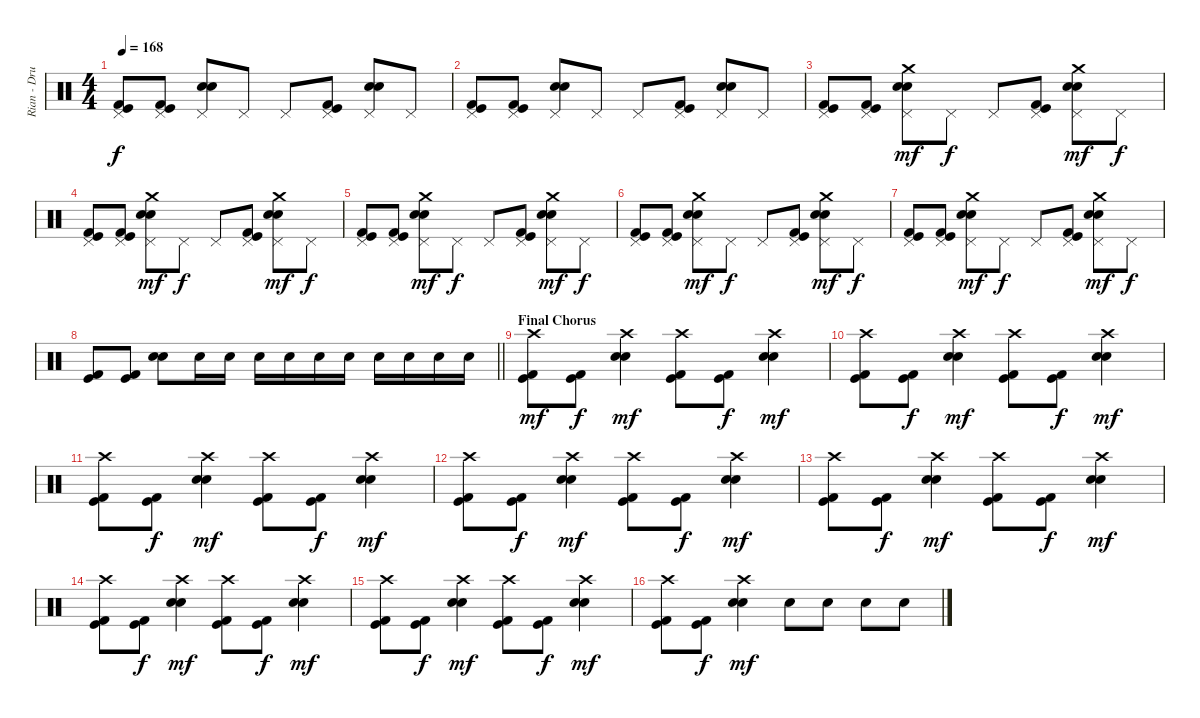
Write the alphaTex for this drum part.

\track ("Rian - Drums" "Rian - Dru") {instrument percussion}
\staff {score}
\articulation defaults
\ts (4 4)
\tempo 168
\clef neutral
\ks c
("Kick (hit) 2" "Kick (hit)" "Pedal Hi-Hat (hit)").8{dy f} ("Kick (hit) 2" "Kick (hit)" "Pedal Hi-Hat (hit)").8 ("Electric Snare (hit)" "Electric Snare (hit)" "Pedal Hi-Hat (hit)").8 "Pedal Hi-Hat (hit)".8 "Pedal Hi-Hat (hit)".8 ("Kick (hit) 2" "Kick (hit)" "Pedal Hi-Hat (hit)").8 ("Electric Snare (hit)" "Electric Snare (hit)" "Pedal Hi-Hat (hit)").8 "Pedal Hi-Hat (hit)".8 |
("Kick (hit) 2" "Kick (hit)" "Pedal Hi-Hat (hit)").8 ("Kick (hit) 2" "Kick (hit)" "Pedal Hi-Hat (hit)").8 ("Electric Snare (hit)" "Electric Snare (hit)" "Pedal Hi-Hat (hit)").8 "Pedal Hi-Hat (hit)".8 "Pedal Hi-Hat (hit)".8 ("Kick (hit) 2" "Kick (hit)" "Pedal Hi-Hat (hit)").8 ("Electric Snare (hit)" "Electric Snare (hit)" "Pedal Hi-Hat (hit)").8 "Pedal Hi-Hat (hit)".8 |
("Kick (hit) 2" "Kick (hit)" "Pedal Hi-Hat (hit)").8 ("Kick (hit) 2" "Kick (hit)" "Pedal Hi-Hat (hit)").8 ("Electric Snare (hit)" "Electric Snare (hit)" "Pedal Hi-Hat (hit)" "Crash medium (hit)").8{dy mf} "Pedal Hi-Hat (hit)".8{dy f} "Pedal Hi-Hat (hit)".8 ("Kick (hit) 2" "Kick (hit)" "Pedal Hi-Hat (hit)").8 ("Electric Snare (hit)" "Electric Snare (hit)" "Pedal Hi-Hat (hit)" "Crash medium (hit)").8{dy mf} "Pedal Hi-Hat (hit)".8{dy f} |
("Kick (hit) 2" "Kick (hit)" "Pedal Hi-Hat (hit)").8 ("Kick (hit) 2" "Kick (hit)" "Pedal Hi-Hat (hit)").8 ("Electric Snare (hit)" "Electric Snare (hit)" "Pedal Hi-Hat (hit)" "Crash medium (hit)").8{dy mf} "Pedal Hi-Hat (hit)".8{dy f} "Pedal Hi-Hat (hit)".8 ("Kick (hit) 2" "Kick (hit)" "Pedal Hi-Hat (hit)").8 ("Electric Snare (hit)" "Electric Snare (hit)" "Pedal Hi-Hat (hit)" "Crash medium (hit)").8{dy mf} "Pedal Hi-Hat (hit)".8{dy f} |
("Kick (hit) 2" "Kick (hit)" "Pedal Hi-Hat (hit)").8 ("Kick (hit) 2" "Kick (hit)" "Pedal Hi-Hat (hit)").8 ("Electric Snare (hit)" "Electric Snare (hit)" "Pedal Hi-Hat (hit)" "Crash medium (hit)").8{dy mf} "Pedal Hi-Hat (hit)".8{dy f} "Pedal Hi-Hat (hit)".8 ("Kick (hit) 2" "Kick (hit)" "Pedal Hi-Hat (hit)").8 ("Electric Snare (hit)" "Electric Snare (hit)" "Pedal Hi-Hat (hit)" "Crash medium (hit)").8{dy mf} "Pedal Hi-Hat (hit)".8{dy f} |
("Kick (hit) 2" "Kick (hit)" "Pedal Hi-Hat (hit)").8 ("Kick (hit) 2" "Kick (hit)" "Pedal Hi-Hat (hit)").8 ("Electric Snare (hit)" "Electric Snare (hit)" "Pedal Hi-Hat (hit)" "Crash medium (hit)").8{dy mf} "Pedal Hi-Hat (hit)".8{dy f} "Pedal Hi-Hat (hit)".8 ("Kick (hit) 2" "Kick (hit)" "Pedal Hi-Hat (hit)").8 ("Electric Snare (hit)" "Electric Snare (hit)" "Pedal Hi-Hat (hit)" "Crash medium (hit)").8{dy mf} "Pedal Hi-Hat (hit)".8{dy f} |
("Kick (hit) 2" "Kick (hit)" "Pedal Hi-Hat (hit)").8 ("Kick (hit) 2" "Kick (hit)" "Pedal Hi-Hat (hit)").8 ("Electric Snare (hit)" "Electric Snare (hit)" "Pedal Hi-Hat (hit)" "Crash medium (hit)").8{dy mf} "Pedal Hi-Hat (hit)".8{dy f} "Pedal Hi-Hat (hit)".8 ("Kick (hit) 2" "Kick (hit)" "Pedal Hi-Hat (hit)").8 ("Electric Snare (hit)" "Electric Snare (hit)" "Pedal Hi-Hat (hit)" "Crash medium (hit)").8{dy mf} "Pedal Hi-Hat (hit)".8{dy f} |
\barLineRight lightlight
("Kick (hit) 2" "Kick (hit)").8 ("Kick (hit) 2" "Kick (hit)").8 ("Electric Snare (hit)" "Electric Snare (hit)").8 "Electric Snare (hit)".16 "Electric Snare (hit)".16 "Electric Snare (hit)".16 "Electric Snare (hit)".16 "Electric Snare (hit)".16 "Electric Snare (hit)".16 "Electric Snare (hit)".16 "Electric Snare (hit)".16 "Electric Snare (hit)".16 "Electric Snare (hit)".16 |
\section ("" "Final Chorus")
("Kick (hit) 2" "Kick (hit)" "Crash high (hit)").8{dy mf} ("Kick (hit) 2" "Kick (hit)").8{dy f} ("Electric Snare (hit)" "Electric Snare (hit)" "Crash high (hit)").4{dy mf} ("Kick (hit) 2" "Kick (hit)" "Crash high (hit)").8 ("Kick (hit) 2" "Kick (hit)").8{dy f} ("Electric Snare (hit)" "Electric Snare (hit)" "Crash high (hit)").4{dy mf} |
("Kick (hit) 2" "Kick (hit)" "Crash high (hit)").8 ("Kick (hit) 2" "Kick (hit)").8{dy f} ("Electric Snare (hit)" "Electric Snare (hit)" "Crash high (hit)").4{dy mf} ("Kick (hit) 2" "Kick (hit)" "Crash high (hit)").8 ("Kick (hit) 2" "Kick (hit)").8{dy f} ("Electric Snare (hit)" "Electric Snare (hit)" "Crash high (hit)").4{dy mf} |
("Kick (hit) 2" "Kick (hit)" "Crash high (hit)").8 ("Kick (hit) 2" "Kick (hit)").8{dy f} ("Electric Snare (hit)" "Electric Snare (hit)" "Crash high (hit)").4{dy mf} ("Kick (hit) 2" "Kick (hit)" "Crash high (hit)").8 ("Kick (hit) 2" "Kick (hit)").8{dy f} ("Electric Snare (hit)" "Electric Snare (hit)" "Crash high (hit)").4{dy mf} |
("Kick (hit) 2" "Kick (hit)" "Crash high (hit)").8 ("Kick (hit) 2" "Kick (hit)").8{dy f} ("Electric Snare (hit)" "Electric Snare (hit)" "Crash high (hit)").4{dy mf} ("Kick (hit) 2" "Kick (hit)" "Crash high (hit)").8 ("Kick (hit) 2" "Kick (hit)").8{dy f} ("Electric Snare (hit)" "Electric Snare (hit)" "Crash high (hit)").4{dy mf} |
("Kick (hit) 2" "Kick (hit)" "Crash high (hit)").8 ("Kick (hit) 2" "Kick (hit)").8{dy f} ("Electric Snare (hit)" "Electric Snare (hit)" "Crash high (hit)").4{dy mf} ("Kick (hit) 2" "Kick (hit)" "Crash high (hit)").8 ("Kick (hit) 2" "Kick (hit)").8{dy f} ("Electric Snare (hit)" "Electric Snare (hit)" "Crash high (hit)").4{dy mf} |
("Kick (hit) 2" "Kick (hit)" "Crash high (hit)").8 ("Kick (hit) 2" "Kick (hit)").8{dy f} ("Electric Snare (hit)" "Electric Snare (hit)" "Crash high (hit)").4{dy mf} ("Kick (hit) 2" "Kick (hit)" "Crash high (hit)").8 ("Kick (hit) 2" "Kick (hit)").8{dy f} ("Electric Snare (hit)" "Electric Snare (hit)" "Crash high (hit)").4{dy mf} |
("Kick (hit) 2" "Kick (hit)" "Crash high (hit)").8 ("Kick (hit) 2" "Kick (hit)").8{dy f} ("Electric Snare (hit)" "Electric Snare (hit)" "Crash high (hit)").4{dy mf} ("Kick (hit) 2" "Kick (hit)" "Crash high (hit)").8 ("Kick (hit) 2" "Kick (hit)").8{dy f} ("Electric Snare (hit)" "Electric Snare (hit)" "Crash high (hit)").4{dy mf} |
("Kick (hit) 2" "Kick (hit)" "Crash high (hit)").8 ("Kick (hit) 2" "Kick (hit)").8{dy f} ("Electric Snare (hit)" "Electric Snare (hit)" "Crash high (hit)").4{dy mf} "Electric Snare (hit)".8 "Electric Snare (hit)".8 "Electric Snare (hit)".8 "Electric Snare (hit)".8
